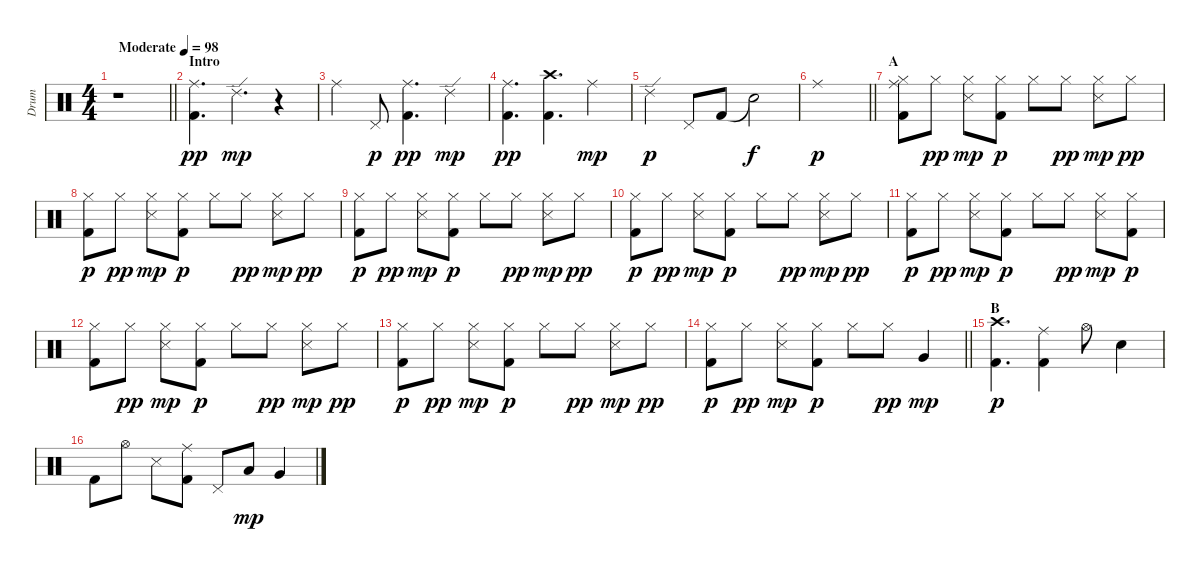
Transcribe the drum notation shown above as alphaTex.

\track ("Drum" "Drum") {instrument percussion}
\staff {score}
\articulation defaults
\ts (4 4)
\tempo (98 "Moderate")
\clef neutral
\barLineRight lightlight
\ks c
r.1{dy pp} |
\section ("" "Intro")
("Ride (middle)" "Kick (hit) 2").4{d} "Ride (edge) 2".4{d dy mp} r.4 |
"Ride (middle)".4 "Pedal Hi-Hat (hit)".8{dy p} ("Ride (middle)" "Kick (hit) 2").4{d dy pp} "Ride (edge) 2".4{dy mp} |
("Ride (middle)" "Kick (hit) 2").4{d dy pp} ("Crash high (hit)" "Kick (hit) 2").4{d} "Ride (middle)".4{dy mp} |
"Ride (edge) 2".4{dy p} "Pedal Hi-Hat (hit)".8 "Kick (hit) 2".8 "Snare (hit)"{t}.2{dy f} |
\barLineRight lightlight "Ride (middle)".1{dy p}
|
\section ("" "A")
("Ride (middle)" "Hi-Hat (closed)" "Kick (hit) 2").8 "Hi-Hat (closed)".8{dy pp} ("Hi-Hat (closed)" "Snare (side stick) 3").8{dy mp} ("Hi-Hat (closed)" "Kick (hit) 2").8{dy p} "Hi-Hat (closed)".8 "Hi-Hat (closed)".8{dy pp} ("Hi-Hat (closed)" "Snare (side stick) 3").8{dy mp} "Hi-Hat (closed)".8{dy pp} |
("Hi-Hat (closed)" "Kick (hit) 2").8{dy p} "Hi-Hat (closed)".8{dy pp} ("Hi-Hat (closed)" "Snare (side stick) 3").8{dy mp} ("Hi-Hat (closed)" "Kick (hit) 2").8{dy p} "Hi-Hat (closed)".8 "Hi-Hat (closed)".8{dy pp} ("Hi-Hat (closed)" "Snare (side stick) 3").8{dy mp} "Hi-Hat (closed)".8{dy pp} |
("Hi-Hat (closed)" "Kick (hit) 2").8{dy p} "Hi-Hat (closed)".8{dy pp} ("Hi-Hat (closed)" "Snare (side stick) 3").8{dy mp} ("Hi-Hat (closed)" "Kick (hit) 2").8{dy p} "Hi-Hat (closed)".8 "Hi-Hat (closed)".8{dy pp} ("Hi-Hat (closed)" "Snare (side stick) 3").8{dy mp} "Hi-Hat (closed)".8{dy pp} |
("Hi-Hat (closed)" "Kick (hit) 2").8{dy p} "Hi-Hat (closed)".8{dy pp} ("Hi-Hat (closed)" "Snare (side stick) 3").8{dy mp} ("Hi-Hat (closed)" "Kick (hit) 2").8{dy p} "Hi-Hat (closed)".8 "Hi-Hat (closed)".8{dy pp} ("Hi-Hat (closed)" "Snare (side stick) 3").8{dy mp} "Hi-Hat (closed)".8{dy pp} |
("Hi-Hat (closed)" "Kick (hit) 2").8{dy p} "Hi-Hat (closed)".8{dy pp} ("Hi-Hat (closed)" "Snare (side stick) 3").8{dy mp} ("Hi-Hat (closed)" "Kick (hit) 2").8{dy p} "Hi-Hat (closed)".8 "Hi-Hat (closed)".8{dy pp} ("Hi-Hat (closed)" "Snare (side stick) 3").8{dy mp} ("Hi-Hat (closed)" "Kick (hit) 2").8{dy p} |
("Hi-Hat (closed)" "Kick (hit) 2").8 "Hi-Hat (closed)".8{dy pp} ("Hi-Hat (closed)" "Snare (side stick) 3").8{dy mp} ("Hi-Hat (closed)" "Kick (hit) 2").8{dy p} "Hi-Hat (closed)".8 "Hi-Hat (closed)".8{dy pp} ("Hi-Hat (closed)" "Snare (side stick) 3").8{dy mp} "Hi-Hat (closed)".8{dy pp} |
("Hi-Hat (closed)" "Kick (hit) 2").8{dy p} "Hi-Hat (closed)".8{dy pp} ("Hi-Hat (closed)" "Snare (side stick) 3").8{dy mp} ("Hi-Hat (closed)" "Kick (hit) 2").8{dy p} "Hi-Hat (closed)".8 "Hi-Hat (closed)".8{dy pp} ("Hi-Hat (closed)" "Snare (side stick) 3").8{dy mp} "Hi-Hat (closed)".8{dy pp} |
\barLineRight lightlight
("Hi-Hat (closed)" "Kick (hit) 2").8{dy p} "Hi-Hat (closed)".8{dy pp} ("Hi-Hat (closed)" "Snare (side stick) 3").8{dy mp} ("Hi-Hat (closed)" "Kick (hit) 2").8{dy p} "Hi-Hat (closed)".8 "Hi-Hat (closed)".8{dy pp} "Very Low Tom (hit)".4{dy mp} |
\section ("" "B")
("Crash high (hit)" "Kick (hit) 2").4{d dy p} ("Ride (middle)" "Kick (hit) 2").4 "Hi-Hat (open)".8 "Snare (hit) 2".4 |
"Kick (hit) 2".8 "Hi-Hat (open)".8 "Snare (side stick) 3".8 ("Ride (middle)" "Kick (hit) 2").8 "Pedal Hi-Hat (hit)".8 "Low Tom (hit)".8{dy mp} "Very Low Tom (hit)".4
